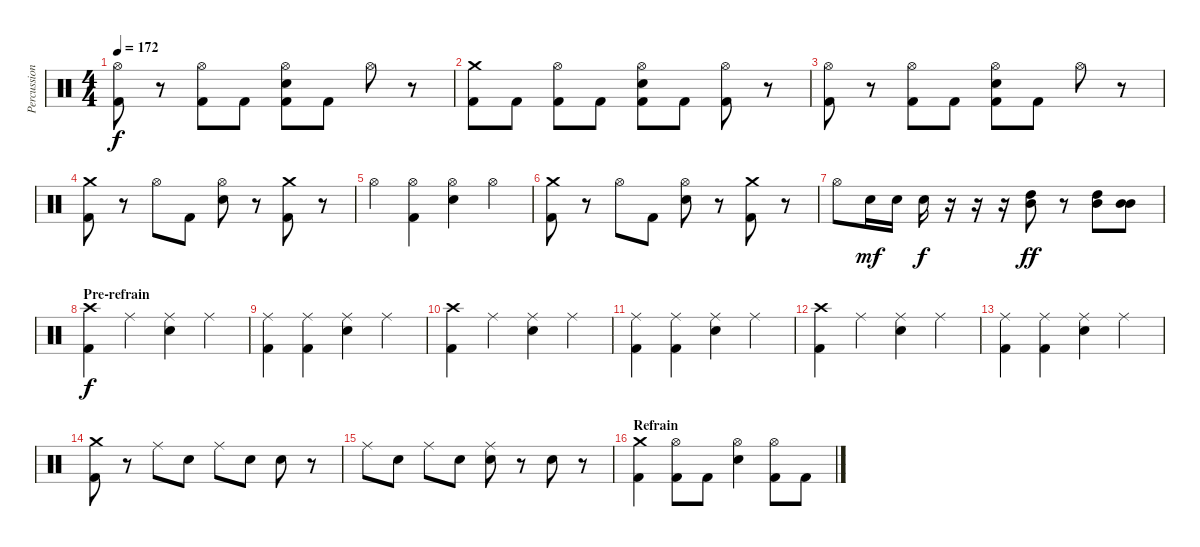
\track ("Percussions" "Percussion") {instrument percussion}
\staff {score}
\articulation defaults
\ts (4 4)
\tempo 172
\clef neutral
\ks c
("Hi-Hat (open)" "Kick (hit) 2").8{dy f} r.8 ("Hi-Hat (open)" "Kick (hit) 2").8 "Kick (hit) 2".8 ("Hi-Hat (open)" "Snare (hit) 2" "Kick (hit) 2").8 "Kick (hit) 2".8 "Hi-Hat (open)".8 r.8 |
("Crash medium (hit)" "Kick (hit) 2").8 "Kick (hit) 2".8 ("Hi-Hat (open)" "Kick (hit) 2").8 "Kick (hit) 2".8 ("Hi-Hat (open)" "Snare (hit) 2" "Kick (hit) 2").8 "Kick (hit) 2".8 ("Hi-Hat (open)" "Kick (hit) 2").8 r.8 |
("Hi-Hat (open)" "Kick (hit) 2").8 r.8 ("Hi-Hat (open)" "Kick (hit) 2").8 "Kick (hit) 2".8 ("Hi-Hat (open)" "Snare (hit) 2" "Kick (hit) 2").8 "Kick (hit) 2".8 "Hi-Hat (open)".8 r.8 |
("Crash medium (hit)" "Kick (hit) 2").8 r.8 "Hi-Hat (open)".8 "Kick (hit) 2".8 ("Hi-Hat (open)" "Snare (hit) 2").8 r.8 ("Crash medium (hit)" "Kick (hit) 2").8 r.8 |
"Hi-Hat (open)".4 ("Hi-Hat (open)" "Kick (hit) 2").4 ("Hi-Hat (open)" "Snare (hit) 2").4 "Hi-Hat (open)".4 |
("Crash medium (hit)" "Kick (hit) 2").8 r.8 "Hi-Hat (open)".8 "Kick (hit) 2".8 ("Hi-Hat (open)" "Snare (hit) 2").8 r.8 ("Crash medium (hit)" "Kick (hit) 2").8 r.8 |
"Hi-Hat (open)".8 "Snare (hit) 2".16{dy mf} "Snare (hit) 2".16 "Snare (hit) 2".16{dy f} r.16 r.16 r.16 ("High Tom (hit)" "Mid Tom (hit)").8{dy ff} r.8 ("High Tom (hit)" "Mid Tom (hit)").8 ("Mid Tom (hit)" "Mid Tom (hit)").8 |
\section ("" "Pre-refrain")
("Crash high (hit)" "Kick (hit) 2").4{dy f} "Ride (middle)".4 ("Ride (middle)" "Snare (hit) 2").4 "Ride (middle)".4 |
("Ride (middle)" "Kick (hit) 2").4 ("Ride (middle)" "Kick (hit) 2").4 ("Ride (middle)" "Snare (hit) 2").4 "Ride (middle)".4 |
("Crash high (hit)" "Kick (hit) 2").4 "Ride (middle)".4 ("Ride (middle)" "Snare (hit) 2").4 "Ride (middle)".4 |
("Ride (middle)" "Kick (hit) 2").4 ("Ride (middle)" "Kick (hit) 2").4 ("Ride (middle)" "Snare (hit) 2").4 "Ride (middle)".4 |
("Crash high (hit)" "Kick (hit) 2").4 "Ride (middle)".4 ("Ride (middle)" "Snare (hit) 2").4 "Ride (middle)".4 |
("Ride (middle)" "Kick (hit) 2").4 ("Ride (middle)" "Kick (hit) 2").4 ("Ride (middle)" "Snare (hit) 2").4 "Ride (middle)".4 |
("Crash medium (hit)" "Kick (hit) 2").8 r.8 "Ride (middle)".8 "Snare (hit) 2".8 "Ride (middle)".8 "Snare (hit) 2".8 "Snare (hit) 2".8 r.8 |
"Ride (middle)".8 "Snare (hit) 2".8 "Ride (middle)".8 "Snare (hit) 2".8 ("Ride (middle)" "Snare (hit) 2").8 r.8 "Snare (hit) 2".8 r.8 |
\section ("" "Refrain")
("Crash medium (hit)" "Kick (hit) 2").4 ("Hi-Hat (open)" "Kick (hit) 2").8 "Kick (hit) 2".8 ("Hi-Hat (open)" "Snare (hit) 2").4 ("Hi-Hat (open)" "Kick (hit) 2").8 "Kick (hit) 2".8
